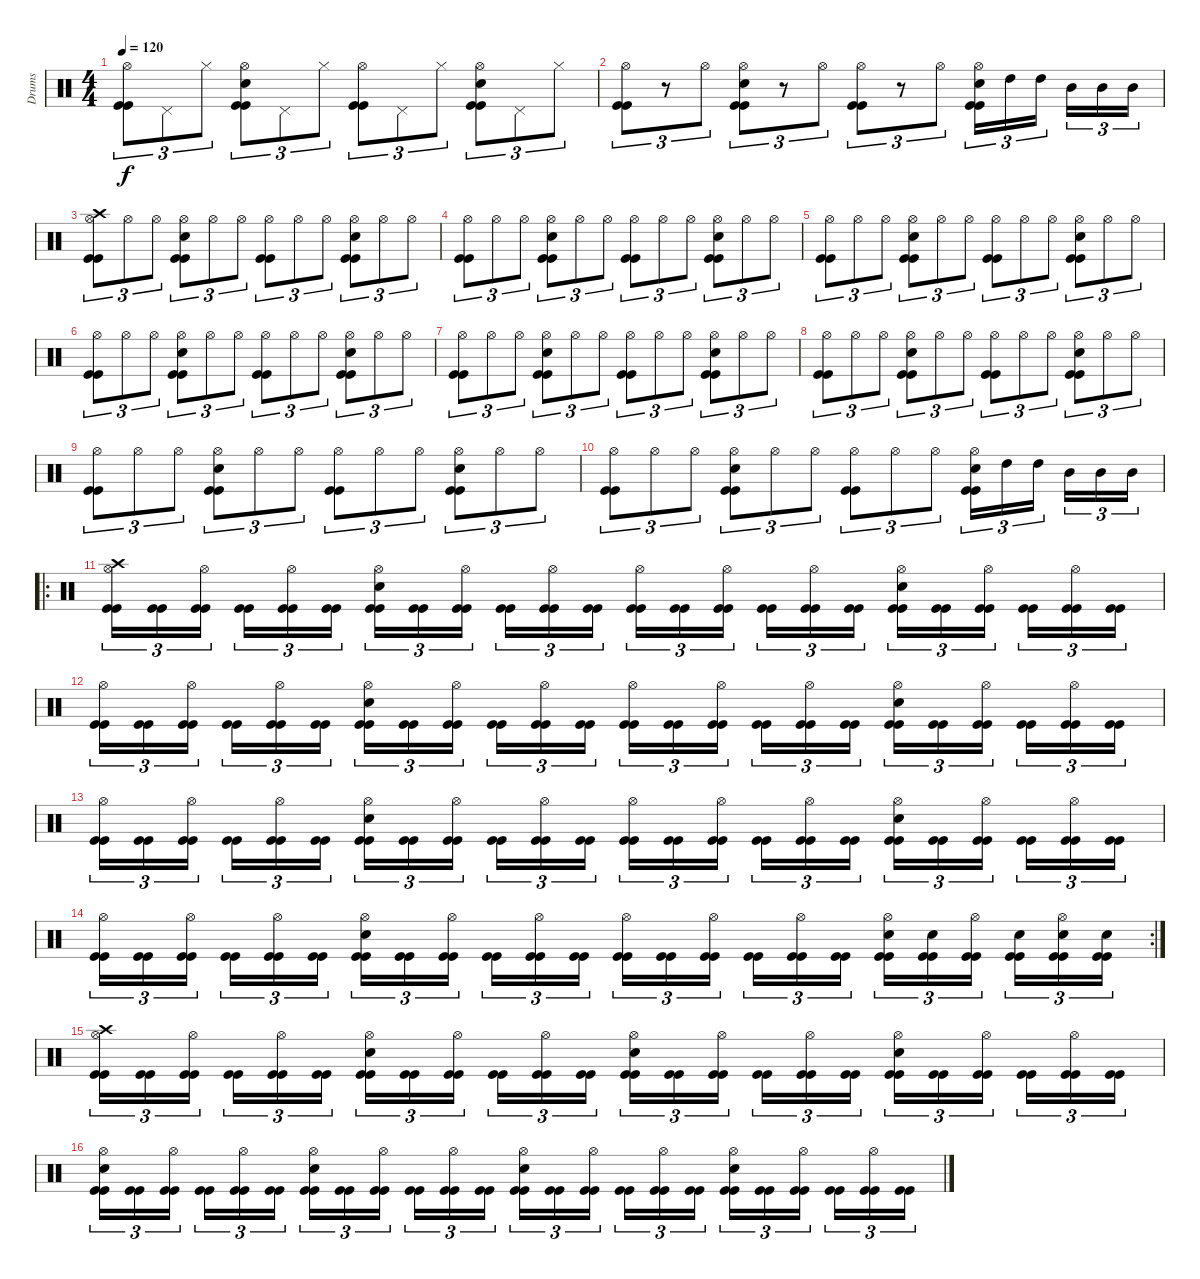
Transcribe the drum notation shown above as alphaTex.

\track ("Drums" "Drums") {instrument percussion}
\staff {score}
\articulation defaults
\ts (4 4)
\tempo 120
\clef neutral
\ks c
("Hi-Hat (open)" "Kick (hit)" "Kick (hit)").8{tu (3 2) dy f} "Pedal Hi-Hat (hit)".8{tu (3 2)} "Hi-Hat (closed)".8{tu (3 2)} ("Snare (hit) 2" "Hi-Hat (open)" "Kick (hit)" "Kick (hit)").8{tu (3 2)} "Pedal Hi-Hat (hit)".8{tu (3 2)} "Hi-Hat (closed)".8{tu (3 2)} ("Hi-Hat (open)" "Kick (hit)" "Kick (hit)").8{tu (3 2)} "Pedal Hi-Hat (hit)".8{tu (3 2)} "Hi-Hat (closed)".8{tu (3 2)} ("Snare (hit) 2" "Hi-Hat (open)" "Kick (hit)" "Kick (hit)").8{tu (3 2)} "Pedal Hi-Hat (hit)".8{tu (3 2)} "Hi-Hat (closed)".8{tu (3 2)} |
("Hi-Hat (open)" "Kick (hit)" "Kick (hit)").8{tu (3 2)} r.8{tu (3 2)} "Hi-Hat (open)".8{tu (3 2)} ("Snare (hit) 2" "Hi-Hat (open)" "Kick (hit)" "Kick (hit)").8{tu (3 2)} r.8{tu (3 2)} "Hi-Hat (open)".8{tu (3 2)} ("Hi-Hat (open)" "Kick (hit)" "Kick (hit)").8{tu (3 2)} r.8{tu (3 2)} "Hi-Hat (open)".8{tu (3 2)} ("Snare (hit) 2" "Hi-Hat (open)" "Kick (hit)" "Kick (hit)").16{tu (3 2)} "High Tom (hit)".16{tu (3 2)} "High Tom (hit)".16{tu (3 2)} "Mid Tom (hit)".16{tu (3 2)} "Mid Tom (hit)".16{tu (3 2)} "Mid Tom (hit)".16{tu (3 2)} |
("Crash high (hit)" "Hi-Hat (open)" "Kick (hit)" "Kick (hit)").8{tu (3 2)} "Hi-Hat (open)".8{tu (3 2)} "Hi-Hat (open)".8{tu (3 2)} ("Snare (hit) 2" "Hi-Hat (open)" "Kick (hit)" "Kick (hit)").8{tu (3 2)} "Hi-Hat (open)".8{tu (3 2)} "Hi-Hat (open)".8{tu (3 2)} ("Hi-Hat (open)" "Kick (hit)" "Kick (hit)").8{tu (3 2)} "Hi-Hat (open)".8{tu (3 2)} "Hi-Hat (open)".8{tu (3 2)} ("Snare (hit) 2" "Hi-Hat (open)" "Kick (hit)" "Kick (hit)").8{tu (3 2)} "Hi-Hat (open)".8{tu (3 2)} "Hi-Hat (open)".8{tu (3 2)} |
("Hi-Hat (open)" "Kick (hit)" "Kick (hit)").8{tu (3 2)} "Hi-Hat (open)".8{tu (3 2)} "Hi-Hat (open)".8{tu (3 2)} ("Snare (hit) 2" "Hi-Hat (open)" "Kick (hit)" "Kick (hit)").8{tu (3 2)} "Hi-Hat (open)".8{tu (3 2)} "Hi-Hat (open)".8{tu (3 2)} ("Hi-Hat (open)" "Kick (hit)" "Kick (hit)").8{tu (3 2)} "Hi-Hat (open)".8{tu (3 2)} "Hi-Hat (open)".8{tu (3 2)} ("Snare (hit) 2" "Hi-Hat (open)" "Kick (hit)" "Kick (hit)").8{tu (3 2)} "Hi-Hat (open)".8{tu (3 2)} "Hi-Hat (open)".8{tu (3 2)} |
("Hi-Hat (open)" "Kick (hit)" "Kick (hit)").8{tu (3 2)} "Hi-Hat (open)".8{tu (3 2)} "Hi-Hat (open)".8{tu (3 2)} ("Snare (hit) 2" "Hi-Hat (open)" "Kick (hit)" "Kick (hit)").8{tu (3 2)} "Hi-Hat (open)".8{tu (3 2)} "Hi-Hat (open)".8{tu (3 2)} ("Hi-Hat (open)" "Kick (hit)" "Kick (hit)").8{tu (3 2)} "Hi-Hat (open)".8{tu (3 2)} "Hi-Hat (open)".8{tu (3 2)} ("Snare (hit) 2" "Hi-Hat (open)" "Kick (hit)" "Kick (hit)").8{tu (3 2)} "Hi-Hat (open)".8{tu (3 2)} "Hi-Hat (open)".8{tu (3 2)} |
("Hi-Hat (open)" "Kick (hit)" "Kick (hit)").8{tu (3 2)} "Hi-Hat (open)".8{tu (3 2)} "Hi-Hat (open)".8{tu (3 2)} ("Snare (hit) 2" "Hi-Hat (open)" "Kick (hit)" "Kick (hit)").8{tu (3 2)} "Hi-Hat (open)".8{tu (3 2)} "Hi-Hat (open)".8{tu (3 2)} ("Hi-Hat (open)" "Kick (hit)" "Kick (hit)").8{tu (3 2)} "Hi-Hat (open)".8{tu (3 2)} "Hi-Hat (open)".8{tu (3 2)} ("Snare (hit) 2" "Hi-Hat (open)" "Kick (hit)" "Kick (hit)").8{tu (3 2)} "Hi-Hat (open)".8{tu (3 2)} "Hi-Hat (open)".8{tu (3 2)} |
("Hi-Hat (open)" "Kick (hit)" "Kick (hit)").8{tu (3 2)} "Hi-Hat (open)".8{tu (3 2)} "Hi-Hat (open)".8{tu (3 2)} ("Snare (hit) 2" "Hi-Hat (open)" "Kick (hit)" "Kick (hit)").8{tu (3 2)} "Hi-Hat (open)".8{tu (3 2)} "Hi-Hat (open)".8{tu (3 2)} ("Hi-Hat (open)" "Kick (hit)" "Kick (hit)").8{tu (3 2)} "Hi-Hat (open)".8{tu (3 2)} "Hi-Hat (open)".8{tu (3 2)} ("Snare (hit) 2" "Hi-Hat (open)" "Kick (hit)" "Kick (hit)").8{tu (3 2)} "Hi-Hat (open)".8{tu (3 2)} "Hi-Hat (open)".8{tu (3 2)} |
("Hi-Hat (open)" "Kick (hit)" "Kick (hit)").8{tu (3 2)} "Hi-Hat (open)".8{tu (3 2)} "Hi-Hat (open)".8{tu (3 2)} ("Snare (hit) 2" "Hi-Hat (open)" "Kick (hit)" "Kick (hit)").8{tu (3 2)} "Hi-Hat (open)".8{tu (3 2)} "Hi-Hat (open)".8{tu (3 2)} ("Hi-Hat (open)" "Kick (hit)" "Kick (hit)").8{tu (3 2)} "Hi-Hat (open)".8{tu (3 2)} "Hi-Hat (open)".8{tu (3 2)} ("Snare (hit) 2" "Hi-Hat (open)" "Kick (hit)" "Kick (hit)").8{tu (3 2)} "Hi-Hat (open)".8{tu (3 2)} "Hi-Hat (open)".8{tu (3 2)} |
("Hi-Hat (open)" "Kick (hit)" "Kick (hit)").8{tu (3 2)} "Hi-Hat (open)".8{tu (3 2)} "Hi-Hat (open)".8{tu (3 2)} ("Snare (hit) 2" "Hi-Hat (open)" "Kick (hit)" "Kick (hit)").8{tu (3 2)} "Hi-Hat (open)".8{tu (3 2)} "Hi-Hat (open)".8{tu (3 2)} ("Hi-Hat (open)" "Kick (hit)" "Kick (hit)").8{tu (3 2)} "Hi-Hat (open)".8{tu (3 2)} "Hi-Hat (open)".8{tu (3 2)} ("Snare (hit) 2" "Hi-Hat (open)" "Kick (hit)" "Kick (hit)").8{tu (3 2)} "Hi-Hat (open)".8{tu (3 2)} "Hi-Hat (open)".8{tu (3 2)} |
("Hi-Hat (open)" "Kick (hit)" "Kick (hit)").8{tu (3 2)} "Hi-Hat (open)".8{tu (3 2)} "Hi-Hat (open)".8{tu (3 2)} ("Snare (hit) 2" "Hi-Hat (open)" "Kick (hit)" "Kick (hit)").8{tu (3 2)} "Hi-Hat (open)".8{tu (3 2)} "Hi-Hat (open)".8{tu (3 2)} ("Hi-Hat (open)" "Kick (hit)" "Kick (hit)").8{tu (3 2)} "Hi-Hat (open)".8{tu (3 2)} "Hi-Hat (open)".8{tu (3 2)} ("Snare (hit) 2" "Hi-Hat (open)" "Kick (hit)" "Kick (hit)").16{tu (3 2)} "High Tom (hit)".16{tu (3 2)} "High Tom (hit)".16{tu (3 2)} "Mid Tom (hit)".16{tu (3 2)} "Mid Tom (hit)".16{tu (3 2)} "Mid Tom (hit)".16{tu (3 2)} |
\ro
("Crash high (hit)" "Hi-Hat (open)" "Kick (hit)" "Kick (hit)").16{tu (3 2)} ("Kick (hit)" "Kick (hit)").16{tu (3 2)} ("Hi-Hat (open)" "Kick (hit)" "Kick (hit)").16{tu (3 2)} ("Kick (hit)" "Kick (hit)").16{tu (3 2)} ("Hi-Hat (open)" "Kick (hit)" "Kick (hit)").16{tu (3 2)} ("Kick (hit)" "Kick (hit)").16{tu (3 2)} ("Snare (hit) 2" "Hi-Hat (open)" "Kick (hit)" "Kick (hit)").16{tu (3 2)} ("Kick (hit)" "Kick (hit)").16{tu (3 2)} ("Hi-Hat (open)" "Kick (hit)" "Kick (hit)").16{tu (3 2)} ("Kick (hit)" "Kick (hit)").16{tu (3 2)} ("Hi-Hat (open)" "Kick (hit)" "Kick (hit)").16{tu (3 2)} ("Kick (hit)" "Kick (hit)").16{tu (3 2)} ("Hi-Hat (open)" "Kick (hit)" "Kick (hit)").16{tu (3 2)} ("Kick (hit)" "Kick (hit)").16{tu (3 2)} ("Hi-Hat (open)" "Kick (hit)" "Kick (hit)").16{tu (3 2)} ("Kick (hit)" "Kick (hit)").16{tu (3 2)} ("Hi-Hat (open)" "Kick (hit)" "Kick (hit)").16{tu (3 2)} ("Kick (hit)" "Kick (hit)").16{tu (3 2)} ("Snare (hit) 2" "Hi-Hat (open)" "Kick (hit)" "Kick (hit)").16{tu (3 2)} ("Kick (hit)" "Kick (hit)").16{tu (3 2)} ("Hi-Hat (open)" "Kick (hit)" "Kick (hit)").16{tu (3 2)} ("Kick (hit)" "Kick (hit)").16{tu (3 2)} ("Hi-Hat (open)" "Kick (hit)" "Kick (hit)").16{tu (3 2)} ("Kick (hit)" "Kick (hit)").16{tu (3 2)} |
("Hi-Hat (open)" "Kick (hit)" "Kick (hit)").16{tu (3 2)} ("Kick (hit)" "Kick (hit)").16{tu (3 2)} ("Hi-Hat (open)" "Kick (hit)" "Kick (hit)").16{tu (3 2)} ("Kick (hit)" "Kick (hit)").16{tu (3 2)} ("Hi-Hat (open)" "Kick (hit)" "Kick (hit)").16{tu (3 2)} ("Kick (hit)" "Kick (hit)").16{tu (3 2)} ("Snare (hit) 2" "Hi-Hat (open)" "Kick (hit)" "Kick (hit)").16{tu (3 2)} ("Kick (hit)" "Kick (hit)").16{tu (3 2)} ("Hi-Hat (open)" "Kick (hit)" "Kick (hit)").16{tu (3 2)} ("Kick (hit)" "Kick (hit)").16{tu (3 2)} ("Hi-Hat (open)" "Kick (hit)" "Kick (hit)").16{tu (3 2)} ("Kick (hit)" "Kick (hit)").16{tu (3 2)} ("Hi-Hat (open)" "Kick (hit)" "Kick (hit)").16{tu (3 2)} ("Kick (hit)" "Kick (hit)").16{tu (3 2)} ("Hi-Hat (open)" "Kick (hit)" "Kick (hit)").16{tu (3 2)} ("Kick (hit)" "Kick (hit)").16{tu (3 2)} ("Hi-Hat (open)" "Kick (hit)" "Kick (hit)").16{tu (3 2)} ("Kick (hit)" "Kick (hit)").16{tu (3 2)} ("Snare (hit) 2" "Hi-Hat (open)" "Kick (hit)" "Kick (hit)").16{tu (3 2)} ("Kick (hit)" "Kick (hit)").16{tu (3 2)} ("Hi-Hat (open)" "Kick (hit)" "Kick (hit)").16{tu (3 2)} ("Kick (hit)" "Kick (hit)").16{tu (3 2)} ("Hi-Hat (open)" "Kick (hit)" "Kick (hit)").16{tu (3 2)} ("Kick (hit)" "Kick (hit)").16{tu (3 2)} |
("Hi-Hat (open)" "Kick (hit)" "Kick (hit)").16{tu (3 2)} ("Kick (hit)" "Kick (hit)").16{tu (3 2)} ("Hi-Hat (open)" "Kick (hit)" "Kick (hit)").16{tu (3 2)} ("Kick (hit)" "Kick (hit)").16{tu (3 2)} ("Hi-Hat (open)" "Kick (hit)" "Kick (hit)").16{tu (3 2)} ("Kick (hit)" "Kick (hit)").16{tu (3 2)} ("Snare (hit) 2" "Hi-Hat (open)" "Kick (hit)" "Kick (hit)").16{tu (3 2)} ("Kick (hit)" "Kick (hit)").16{tu (3 2)} ("Hi-Hat (open)" "Kick (hit)" "Kick (hit)").16{tu (3 2)} ("Kick (hit)" "Kick (hit)").16{tu (3 2)} ("Hi-Hat (open)" "Kick (hit)" "Kick (hit)").16{tu (3 2)} ("Kick (hit)" "Kick (hit)").16{tu (3 2)} ("Hi-Hat (open)" "Kick (hit)" "Kick (hit)").16{tu (3 2)} ("Kick (hit)" "Kick (hit)").16{tu (3 2)} ("Hi-Hat (open)" "Kick (hit)" "Kick (hit)").16{tu (3 2)} ("Kick (hit)" "Kick (hit)").16{tu (3 2)} ("Hi-Hat (open)" "Kick (hit)" "Kick (hit)").16{tu (3 2)} ("Kick (hit)" "Kick (hit)").16{tu (3 2)} ("Snare (hit) 2" "Hi-Hat (open)" "Kick (hit)" "Kick (hit)").16{tu (3 2)} ("Kick (hit)" "Kick (hit)").16{tu (3 2)} ("Hi-Hat (open)" "Kick (hit)" "Kick (hit)").16{tu (3 2)} ("Kick (hit)" "Kick (hit)").16{tu (3 2)} ("Hi-Hat (open)" "Kick (hit)" "Kick (hit)").16{tu (3 2)} ("Kick (hit)" "Kick (hit)").16{tu (3 2)} |
\rc 2
("Hi-Hat (open)" "Kick (hit)" "Kick (hit)").16{tu (3 2)} ("Kick (hit)" "Kick (hit)").16{tu (3 2)} ("Hi-Hat (open)" "Kick (hit)" "Kick (hit)").16{tu (3 2)} ("Kick (hit)" "Kick (hit)").16{tu (3 2)} ("Hi-Hat (open)" "Kick (hit)" "Kick (hit)").16{tu (3 2)} ("Kick (hit)" "Kick (hit)").16{tu (3 2)} ("Snare (hit) 2" "Hi-Hat (open)" "Kick (hit)" "Kick (hit)").16{tu (3 2)} ("Kick (hit)" "Kick (hit)").16{tu (3 2)} ("Hi-Hat (open)" "Kick (hit)" "Kick (hit)").16{tu (3 2)} ("Kick (hit)" "Kick (hit)").16{tu (3 2)} ("Hi-Hat (open)" "Kick (hit)" "Kick (hit)").16{tu (3 2)} ("Kick (hit)" "Kick (hit)").16{tu (3 2)} ("Hi-Hat (open)" "Kick (hit)" "Kick (hit)").16{tu (3 2)} ("Kick (hit)" "Kick (hit)").16{tu (3 2)} ("Hi-Hat (open)" "Kick (hit)" "Kick (hit)").16{tu (3 2)} ("Kick (hit)" "Kick (hit)").16{tu (3 2)} ("Hi-Hat (open)" "Kick (hit)" "Kick (hit)").16{tu (3 2)} ("Kick (hit)" "Kick (hit)").16{tu (3 2)} ("Snare (hit) 2" "Hi-Hat (open)" "Kick (hit)" "Kick (hit)").16{tu (3 2)} ("Snare (hit) 2" "Kick (hit)" "Kick (hit)").16{tu (3 2)} ("Hi-Hat (open)" "Kick (hit)" "Kick (hit)").16{tu (3 2)} ("Snare (hit) 2" "Kick (hit)" "Kick (hit)").16{tu (3 2)} ("Snare (hit) 2" "Hi-Hat (open)" "Kick (hit)" "Kick (hit)").16{tu (3 2)} ("Snare (hit) 2" "Kick (hit)" "Kick (hit)").16{tu (3 2)} |
("Crash high (hit)" "Hi-Hat (open)" "Kick (hit)" "Kick (hit)").16{tu (3 2)} ("Kick (hit)" "Kick (hit)").16{tu (3 2)} ("Hi-Hat (open)" "Kick (hit)" "Kick (hit)").16{tu (3 2)} ("Kick (hit)" "Kick (hit)").16{tu (3 2)} ("Hi-Hat (open)" "Kick (hit)" "Kick (hit)").16{tu (3 2)} ("Kick (hit)" "Kick (hit)").16{tu (3 2)} ("Snare (hit) 2" "Hi-Hat (open)" "Kick (hit)" "Kick (hit)").16{tu (3 2)} ("Kick (hit)" "Kick (hit)").16{tu (3 2)} ("Hi-Hat (open)" "Kick (hit)" "Kick (hit)").16{tu (3 2)} ("Kick (hit)" "Kick (hit)").16{tu (3 2)} ("Hi-Hat (open)" "Kick (hit)" "Kick (hit)").16{tu (3 2)} ("Kick (hit)" "Kick (hit)").16{tu (3 2)} ("Snare (hit) 2" "Hi-Hat (open)" "Kick (hit)" "Kick (hit)").16{tu (3 2)} ("Kick (hit)" "Kick (hit)").16{tu (3 2)} ("Hi-Hat (open)" "Kick (hit)" "Kick (hit)").16{tu (3 2)} ("Kick (hit)" "Kick (hit)").16{tu (3 2)} ("Hi-Hat (open)" "Kick (hit)" "Kick (hit)").16{tu (3 2)} ("Kick (hit)" "Kick (hit)").16{tu (3 2)} ("Snare (hit) 2" "Hi-Hat (open)" "Kick (hit)" "Kick (hit)").16{tu (3 2)} ("Kick (hit)" "Kick (hit)").16{tu (3 2)} ("Hi-Hat (open)" "Kick (hit)" "Kick (hit)").16{tu (3 2)} ("Kick (hit)" "Kick (hit)").16{tu (3 2)} ("Hi-Hat (open)" "Kick (hit)" "Kick (hit)").16{tu (3 2)} ("Kick (hit)" "Kick (hit)").16{tu (3 2)} |
("Snare (hit) 2" "Hi-Hat (open)" "Kick (hit)" "Kick (hit)").16{tu (3 2)} ("Kick (hit)" "Kick (hit)").16{tu (3 2)} ("Hi-Hat (open)" "Kick (hit)" "Kick (hit)").16{tu (3 2)} ("Kick (hit)" "Kick (hit)").16{tu (3 2)} ("Hi-Hat (open)" "Kick (hit)" "Kick (hit)").16{tu (3 2)} ("Kick (hit)" "Kick (hit)").16{tu (3 2)} ("Snare (hit) 2" "Hi-Hat (open)" "Kick (hit)" "Kick (hit)").16{tu (3 2)} ("Kick (hit)" "Kick (hit)").16{tu (3 2)} ("Hi-Hat (open)" "Kick (hit)" "Kick (hit)").16{tu (3 2)} ("Kick (hit)" "Kick (hit)").16{tu (3 2)} ("Hi-Hat (open)" "Kick (hit)" "Kick (hit)").16{tu (3 2)} ("Kick (hit)" "Kick (hit)").16{tu (3 2)} ("Snare (hit) 2" "Hi-Hat (open)" "Kick (hit)" "Kick (hit)").16{tu (3 2)} ("Kick (hit)" "Kick (hit)").16{tu (3 2)} ("Hi-Hat (open)" "Kick (hit)" "Kick (hit)").16{tu (3 2)} ("Kick (hit)" "Kick (hit)").16{tu (3 2)} ("Hi-Hat (open)" "Kick (hit)" "Kick (hit)").16{tu (3 2)} ("Kick (hit)" "Kick (hit)").16{tu (3 2)} ("Snare (hit) 2" "Hi-Hat (open)" "Kick (hit)" "Kick (hit)").16{tu (3 2)} ("Kick (hit)" "Kick (hit)").16{tu (3 2)} ("Hi-Hat (open)" "Kick (hit)" "Kick (hit)").16{tu (3 2)} ("Kick (hit)" "Kick (hit)").16{tu (3 2)} ("Hi-Hat (open)" "Kick (hit)" "Kick (hit)").16{tu (3 2)} ("Kick (hit)" "Kick (hit)").16{tu (3 2)}
